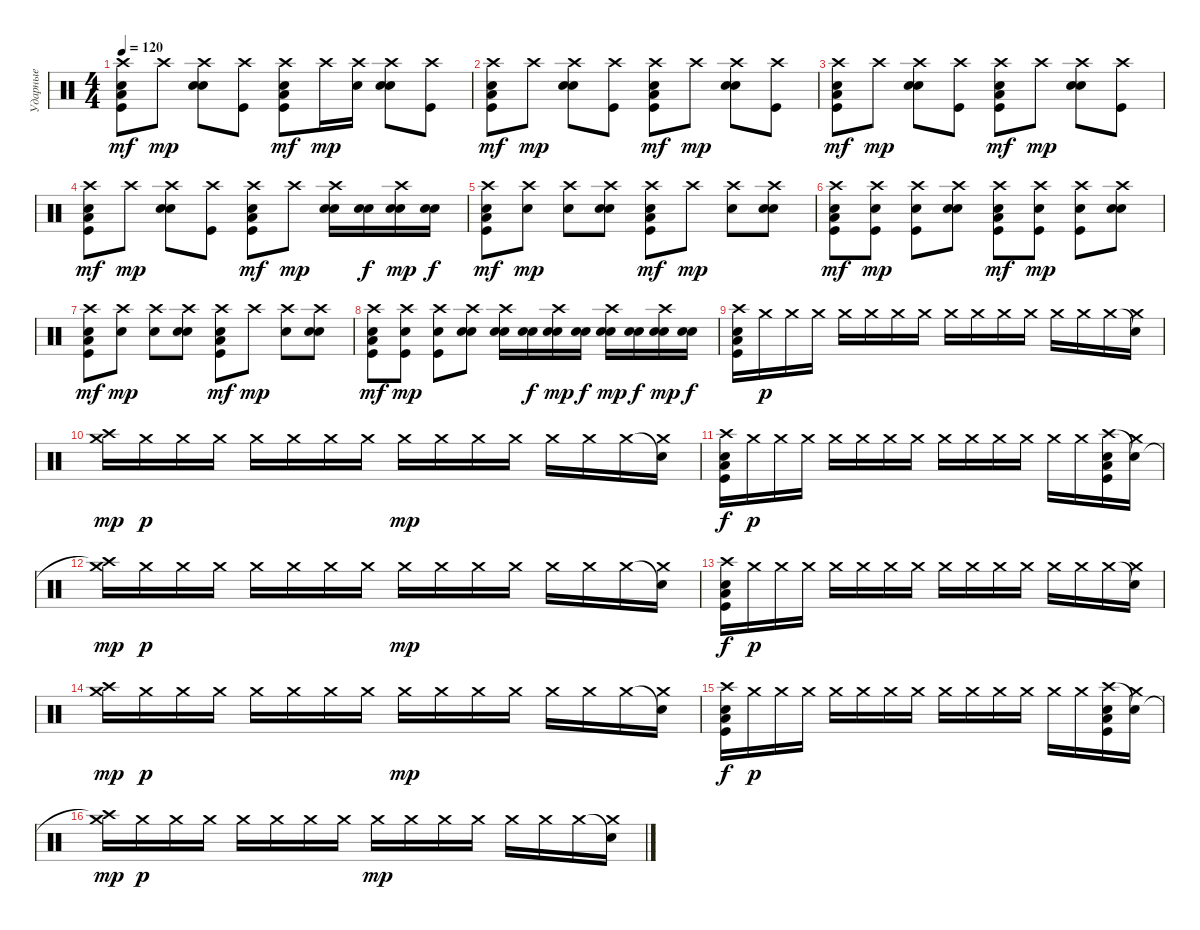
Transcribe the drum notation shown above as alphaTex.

\track ("Ударные" "Ударные") {instrument percussion}
\staff {score}
\articulation defaults
\ts (4 4)
\tempo 120
\clef neutral
\ks c
("Crash high (hit)" "Electric Snare (hit)" "Kick (hit)" "Low Floor Tom (hit)").8{dy mf} "Crash high (hit)".8{dy mp} ("Crash high (hit)" "Electric Snare (hit)" "Electric Snare (hit)").8 ("Crash high (hit)" "Kick (hit)").8 ("Crash high (hit)" "Electric Snare (hit)" "Kick (hit)" "Low Floor Tom (hit)").8{dy mf} "Crash high (hit)".16{dy mp} ("Crash high (hit)" "Electric Snare (hit)").16 ("Crash high (hit)" "Electric Snare (hit)" "Electric Snare (hit)").8 ("Crash high (hit)" "Kick (hit)").8 |
("Crash high (hit)" "Electric Snare (hit)" "Kick (hit)" "Low Floor Tom (hit)").8{dy mf} "Crash high (hit)".8{dy mp} ("Crash high (hit)" "Electric Snare (hit)" "Electric Snare (hit)").8 ("Crash high (hit)" "Kick (hit)").8 ("Crash high (hit)" "Electric Snare (hit)" "Kick (hit)" "Low Floor Tom (hit)").8{dy mf} "Crash high (hit)".8{dy mp} ("Crash high (hit)" "Electric Snare (hit)" "Electric Snare (hit)").8 ("Crash high (hit)" "Kick (hit)").8 |
("Crash high (hit)" "Electric Snare (hit)" "Kick (hit)" "Low Floor Tom (hit)").8{dy mf} "Crash high (hit)".8{dy mp} ("Crash high (hit)" "Electric Snare (hit)" "Electric Snare (hit)").8 ("Crash high (hit)" "Kick (hit)").8 ("Crash high (hit)" "Electric Snare (hit)" "Kick (hit)" "Low Floor Tom (hit)").8{dy mf} "Crash high (hit)".8{dy mp} ("Crash high (hit)" "Electric Snare (hit)" "Electric Snare (hit)").8 ("Crash high (hit)" "Kick (hit)").8 |
("Crash high (hit)" "Electric Snare (hit)" "Kick (hit)" "Low Floor Tom (hit)").8{dy mf} "Crash high (hit)".8{dy mp} ("Crash high (hit)" "Electric Snare (hit)" "Electric Snare (hit)").8 ("Crash high (hit)" "Kick (hit)").8 ("Crash high (hit)" "Electric Snare (hit)" "Kick (hit)" "Low Floor Tom (hit)").8{dy mf} "Crash high (hit)".8{dy mp} ("Crash high (hit)" "Electric Snare (hit)" "Electric Snare (hit)").16 ("Electric Snare (hit)" "Electric Snare (hit)").16{dy f} ("Crash high (hit)" "Electric Snare (hit)" "Electric Snare (hit)").16{dy mp} ("Electric Snare (hit)" "Electric Snare (hit)").16{dy f} |
("Crash high (hit)" "Electric Snare (hit)" "Kick (hit)" "Low Floor Tom (hit)").8{dy mf} ("Crash high (hit)" "Electric Snare (hit)").8{dy mp} ("Crash high (hit)" "Electric Snare (hit)").8 ("Crash high (hit)" "Electric Snare (hit)" "Electric Snare (hit)").8 ("Crash high (hit)" "Electric Snare (hit)" "Kick (hit)" "Low Floor Tom (hit)").8{dy mf} "Crash high (hit)".8{dy mp} ("Crash high (hit)" "Electric Snare (hit)").8 ("Crash high (hit)" "Electric Snare (hit)" "Electric Snare (hit)").8 |
("Crash high (hit)" "Electric Snare (hit)" "Kick (hit)" "Low Floor Tom (hit)").8{dy mf} ("Crash high (hit)" "Electric Snare (hit)" "Kick (hit)").8{dy mp} ("Crash high (hit)" "Electric Snare (hit)" "Kick (hit)").8 ("Crash high (hit)" "Electric Snare (hit)" "Electric Snare (hit)").8 ("Crash high (hit)" "Electric Snare (hit)" "Kick (hit)" "Low Floor Tom (hit)").8{dy mf} ("Crash high (hit)" "Electric Snare (hit)" "Kick (hit)").8{dy mp} ("Crash high (hit)" "Electric Snare (hit)" "Kick (hit)").8 ("Crash high (hit)" "Electric Snare (hit)" "Electric Snare (hit)").8 |
("Crash high (hit)" "Electric Snare (hit)" "Kick (hit)" "Low Floor Tom (hit)").8{dy mf} ("Crash high (hit)" "Electric Snare (hit)").8{dy mp} ("Crash high (hit)" "Electric Snare (hit)").8 ("Crash high (hit)" "Electric Snare (hit)" "Electric Snare (hit)").8 ("Crash high (hit)" "Electric Snare (hit)" "Kick (hit)" "Low Floor Tom (hit)").8{dy mf} "Crash high (hit)".8{dy mp} ("Crash high (hit)" "Electric Snare (hit)").8 ("Crash high (hit)" "Electric Snare (hit)" "Electric Snare (hit)").8 |
("Crash high (hit)" "Electric Snare (hit)" "Kick (hit)" "Low Floor Tom (hit)").8{dy mf} ("Crash high (hit)" "Electric Snare (hit)" "Kick (hit)").8{dy mp} ("Crash high (hit)" "Electric Snare (hit)" "Kick (hit)").8 ("Crash high (hit)" "Electric Snare (hit)" "Electric Snare (hit)").8 ("Crash high (hit)" "Electric Snare (hit)" "Electric Snare (hit)").16 ("Electric Snare (hit)" "Electric Snare (hit)").16{dy f} ("Crash high (hit)" "Electric Snare (hit)" "Electric Snare (hit)").16{dy mp} ("Electric Snare (hit)" "Electric Snare (hit)").16{dy f} ("Crash high (hit)" "Electric Snare (hit)" "Electric Snare (hit)").16{dy mp} ("Electric Snare (hit)" "Electric Snare (hit)").16{dy f} ("Crash high (hit)" "Electric Snare (hit)" "Electric Snare (hit)").16{dy mp} ("Electric Snare (hit)" "Electric Snare (hit)").16{dy f} |
("Crash high (hit)" "Snare (hit) 2" "Kick (hit)" "Low Floor Tom (hit)").16 "Crash medium (hit)".16{dy p} "Crash medium (hit)".16 "Crash medium (hit)".16 "Crash medium (hit)".16 "Crash medium (hit)".16 "Crash medium (hit)".16 "Crash medium (hit)".16 "Crash medium (hit)".16 "Crash medium (hit)".16 "Crash medium (hit)".16 "Crash medium (hit)".16 "Crash medium (hit)".16 "Crash medium (hit)".16 "Crash medium (hit)".16 ("Snare (hit)"{t} "Crash medium (hit)").16 |
("Crash high (hit)" "Crash medium (hit)").16{dy mp} "Crash medium (hit)".16{dy p} "Crash medium (hit)".16 "Crash medium (hit)".16 "Crash medium (hit)".16 "Crash medium (hit)".16 "Crash medium (hit)".16 "Crash medium (hit)".16 "Crash medium (hit)".16{dy mp} "Crash medium (hit)".16 "Crash medium (hit)".16 "Crash medium (hit)".16 "Crash medium (hit)".16 "Crash medium (hit)".16 "Crash medium (hit)".16 ("Snare (hit)"{t} "Crash medium (hit)").16 |
("Crash high (hit)" "Snare (hit) 2" "Kick (hit)" "Low Floor Tom (hit)").16{dy f} "Crash medium (hit)".16{dy p} "Crash medium (hit)".16 "Crash medium (hit)".16 "Crash medium (hit)".16 "Crash medium (hit)".16 "Crash medium (hit)".16 "Crash medium (hit)".16 "Crash medium (hit)".16 "Crash medium (hit)".16 "Crash medium (hit)".16 "Crash medium (hit)".16 "Crash medium (hit)".16 "Crash medium (hit)".16 ("Crash high (hit)" "Snare (hit) 2" "Kick (hit)" "Low Floor Tom (hit)").16 ("Snare (hit)"{t} "Crash medium (hit)").16 |
("Crash high (hit)"{t} "Crash medium (hit)").16{dy mp} "Crash medium (hit)".16{dy p} "Crash medium (hit)".16 "Crash medium (hit)".16 "Crash medium (hit)".16 "Crash medium (hit)".16 "Crash medium (hit)".16 "Crash medium (hit)".16 "Crash medium (hit)".16{dy mp} "Crash medium (hit)".16 "Crash medium (hit)".16 "Crash medium (hit)".16 "Crash medium (hit)".16 "Crash medium (hit)".16 "Crash medium (hit)".16 ("Snare (hit)"{t} "Crash medium (hit)").16 |
("Crash high (hit)" "Snare (hit) 2" "Kick (hit)" "Low Floor Tom (hit)").16{dy f} "Crash medium (hit)".16{dy p} "Crash medium (hit)".16 "Crash medium (hit)".16 "Crash medium (hit)".16 "Crash medium (hit)".16 "Crash medium (hit)".16 "Crash medium (hit)".16 "Crash medium (hit)".16 "Crash medium (hit)".16 "Crash medium (hit)".16 "Crash medium (hit)".16 "Crash medium (hit)".16 "Crash medium (hit)".16 "Crash medium (hit)".16 ("Snare (hit)"{t} "Crash medium (hit)").16 |
("Crash high (hit)" "Crash medium (hit)").16{dy mp} "Crash medium (hit)".16{dy p} "Crash medium (hit)".16 "Crash medium (hit)".16 "Crash medium (hit)".16 "Crash medium (hit)".16 "Crash medium (hit)".16 "Crash medium (hit)".16 "Crash medium (hit)".16{dy mp} "Crash medium (hit)".16 "Crash medium (hit)".16 "Crash medium (hit)".16 "Crash medium (hit)".16 "Crash medium (hit)".16 "Crash medium (hit)".16 ("Snare (hit)"{t} "Crash medium (hit)").16 |
("Crash high (hit)" "Snare (hit) 2" "Kick (hit)" "Low Floor Tom (hit)").16{dy f} "Crash medium (hit)".16{dy p} "Crash medium (hit)".16 "Crash medium (hit)".16 "Crash medium (hit)".16 "Crash medium (hit)".16 "Crash medium (hit)".16 "Crash medium (hit)".16 "Crash medium (hit)".16 "Crash medium (hit)".16 "Crash medium (hit)".16 "Crash medium (hit)".16 "Crash medium (hit)".16 "Crash medium (hit)".16 ("Crash high (hit)" "Snare (hit) 2" "Kick (hit)" "Low Floor Tom (hit)").16 ("Snare (hit)"{t} "Crash medium (hit)").16 |
("Crash high (hit)"{t} "Crash medium (hit)").16{dy mp} "Crash medium (hit)".16{dy p} "Crash medium (hit)".16 "Crash medium (hit)".16 "Crash medium (hit)".16 "Crash medium (hit)".16 "Crash medium (hit)".16 "Crash medium (hit)".16 "Crash medium (hit)".16{dy mp} "Crash medium (hit)".16 "Crash medium (hit)".16 "Crash medium (hit)".16 "Crash medium (hit)".16 "Crash medium (hit)".16 "Crash medium (hit)".16 ("Snare (hit)"{t} "Crash medium (hit)").16
